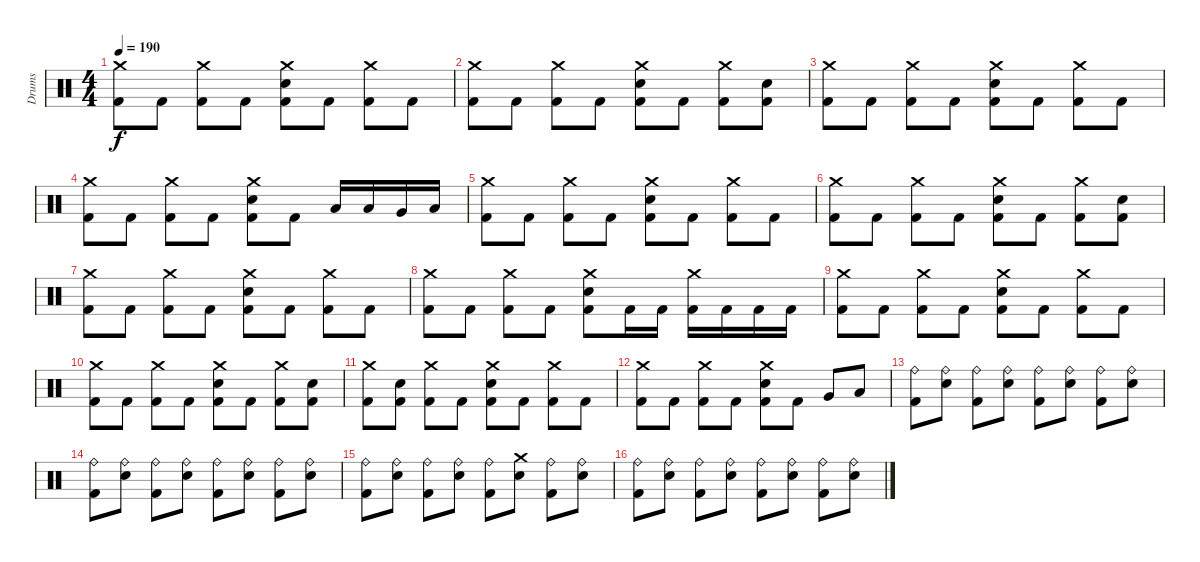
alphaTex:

\track ("Drums" "Drums") {instrument percussion}
\staff {score}
\articulation defaults
\ts (4 4)
\tempo 190
\clef neutral
\ks c
("Crash medium (hit)" "Kick (hit) 2").8{dy f} "Kick (hit) 2".8 ("Crash medium (hit)" "Kick (hit) 2").8 "Kick (hit) 2".8 ("Crash medium (hit)" "Electric Snare (hit)" "Kick (hit) 2").8 "Kick (hit) 2".8 ("Crash medium (hit)" "Kick (hit) 2").8 "Kick (hit) 2".8 |
("Crash medium (hit)" "Kick (hit) 2").8 "Kick (hit) 2".8 ("Crash medium (hit)" "Kick (hit) 2").8 "Kick (hit) 2".8 ("Crash medium (hit)" "Electric Snare (hit)" "Kick (hit) 2").8 "Kick (hit) 2".8 ("Crash medium (hit)" "Kick (hit) 2").8 ("Electric Snare (hit)" "Kick (hit) 2").8 |
("Crash medium (hit)" "Kick (hit) 2").8 "Kick (hit) 2".8 ("Crash medium (hit)" "Kick (hit) 2").8 "Kick (hit) 2".8 ("Crash medium (hit)" "Electric Snare (hit)" "Kick (hit) 2").8 "Kick (hit) 2".8 ("Crash medium (hit)" "Kick (hit) 2").8 "Kick (hit) 2".8 |
("Crash medium (hit)" "Kick (hit) 2").8 "Kick (hit) 2".8 ("Crash medium (hit)" "Kick (hit) 2").8 "Kick (hit) 2".8 ("Crash medium (hit)" "Electric Snare (hit)" "Kick (hit) 2").8 "Kick (hit) 2".8 "Low Tom (hit)".16 "Low Tom (hit)".16 "Very Low Tom (hit)".16 "Low Floor Tom (hit)".16 |
("Crash medium (hit)" "Kick (hit) 2").8 "Kick (hit) 2".8 ("Crash medium (hit)" "Kick (hit) 2").8 "Kick (hit) 2".8 ("Crash medium (hit)" "Electric Snare (hit)" "Kick (hit) 2").8 "Kick (hit) 2".8 ("Crash medium (hit)" "Kick (hit) 2").8 "Kick (hit) 2".8 |
("Crash medium (hit)" "Kick (hit) 2").8 "Kick (hit) 2".8 ("Crash medium (hit)" "Kick (hit) 2").8 "Kick (hit) 2".8 ("Crash medium (hit)" "Electric Snare (hit)" "Kick (hit) 2").8 "Kick (hit) 2".8 ("Crash medium (hit)" "Kick (hit) 2").8 ("Electric Snare (hit)" "Kick (hit) 2").8 |
("Crash medium (hit)" "Kick (hit) 2").8 "Kick (hit) 2".8 ("Crash medium (hit)" "Kick (hit) 2").8 "Kick (hit) 2".8 ("Crash medium (hit)" "Electric Snare (hit)" "Kick (hit) 2").8 "Kick (hit) 2".8 ("Crash medium (hit)" "Kick (hit) 2").8 "Kick (hit) 2".8 |
("Crash medium (hit)" "Kick (hit) 2").8 "Kick (hit) 2".8 ("Crash medium (hit)" "Kick (hit) 2").8 "Kick (hit) 2".8 ("Crash medium (hit)" "Electric Snare (hit)" "Kick (hit) 2").8 "Kick (hit) 2".16 "Kick (hit) 2".16 ("Crash medium (hit)" "Kick (hit) 2").16 "Kick (hit) 2".16 "Kick (hit) 2".16 "Kick (hit) 2".16 |
("Crash medium (hit)" "Kick (hit) 2").8 "Kick (hit) 2".8 ("Crash medium (hit)" "Kick (hit) 2").8 "Kick (hit) 2".8 ("Crash medium (hit)" "Electric Snare (hit)" "Kick (hit) 2").8 "Kick (hit) 2".8 ("Crash medium (hit)" "Kick (hit) 2").8 "Kick (hit) 2".8 |
("Crash medium (hit)" "Kick (hit) 2").8 "Kick (hit) 2".8 ("Crash medium (hit)" "Kick (hit) 2").8 "Kick (hit) 2".8 ("Crash medium (hit)" "Electric Snare (hit)" "Kick (hit) 2").8 "Kick (hit) 2".8 ("Crash medium (hit)" "Kick (hit) 2").8 ("Electric Snare (hit)" "Kick (hit) 2").8 |
("Crash medium (hit)" "Kick (hit) 2").8 ("Electric Snare (hit)" "Kick (hit) 2").8 ("Crash medium (hit)" "Kick (hit) 2").8 "Kick (hit) 2".8 ("Crash medium (hit)" "Electric Snare (hit)" "Kick (hit) 2").8 "Kick (hit) 2".8 ("Crash medium (hit)" "Kick (hit) 2").8 "Kick (hit) 2".8 |
("Crash medium (hit)" "Kick (hit) 2").8 "Kick (hit) 2".8 ("Crash medium (hit)" "Kick (hit) 2").8 "Kick (hit) 2".8 ("Crash medium (hit)" "Electric Snare (hit)" "Kick (hit) 2").8 "Kick (hit) 2".8 "Very Low Tom (hit)".8 "Low Floor Tom (hit)".8 |
("Ride (bell)" "Kick (hit) 2").8 ("Ride (bell)" "Electric Snare (hit)").8 ("Ride (bell)" "Kick (hit) 2").8 ("Ride (bell)" "Electric Snare (hit)").8 ("Ride (bell)" "Kick (hit) 2").8 ("Ride (bell)" "Electric Snare (hit)").8 ("Ride (bell)" "Kick (hit) 2").8 ("Ride (bell)" "Electric Snare (hit)").8 |
("Ride (bell)" "Kick (hit) 2").8 ("Ride (bell)" "Electric Snare (hit)").8 ("Ride (bell)" "Kick (hit) 2").8 ("Ride (bell)" "Electric Snare (hit)").8 ("Ride (bell)" "Kick (hit) 2").8 ("Ride (bell)" "Electric Snare (hit)").8 ("Ride (bell)" "Kick (hit) 2").8 ("Ride (bell)" "Electric Snare (hit)").8 |
("Ride (bell)" "Kick (hit) 2").8 ("Ride (bell)" "Electric Snare (hit)").8 ("Ride (bell)" "Kick (hit) 2").8 ("Ride (bell)" "Electric Snare (hit)").8 ("Ride (bell)" "Kick (hit) 2").8 ("Crash medium (hit)" "Electric Snare (hit)").8 ("Ride (bell)" "Kick (hit) 2").8 ("Ride (bell)" "Electric Snare (hit)").8 |
("Ride (bell)" "Kick (hit) 2").8 ("Ride (bell)" "Electric Snare (hit)").8 ("Ride (bell)" "Kick (hit) 2").8 ("Ride (bell)" "Electric Snare (hit)").8 ("Ride (bell)" "Kick (hit) 2").8 ("Ride (bell)" "Electric Snare (hit)").8 ("Ride (bell)" "Kick (hit) 2").8 ("Ride (bell)" "Electric Snare (hit)").8
